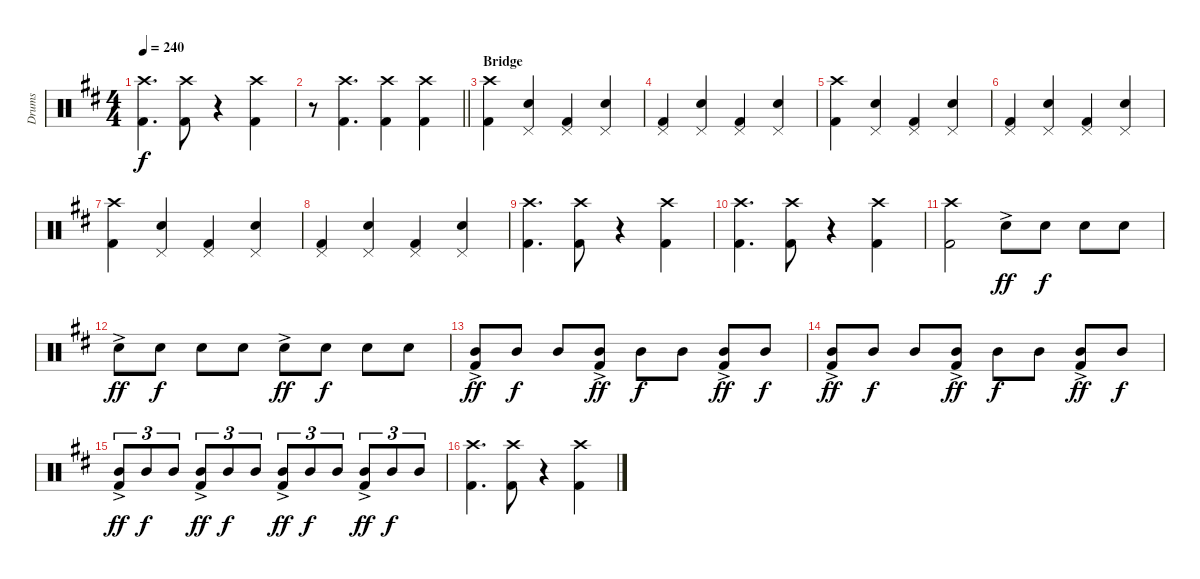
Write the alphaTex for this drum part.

\track ("Drums" "Drums") {instrument percussion}
\staff {score}
\articulation defaults
\ts (4 4)
\tempo 240
\clef neutral
\ks d
("Crash high (hit)" "Kick (hit) 2").4{d dy f} ("Crash high (hit)" "Kick (hit) 2").8 r.4 ("Crash high (hit)" "Kick (hit) 2").4 |
\barLineRight lightlight
r.8 ("Crash high (hit)" "Kick (hit) 2").4{d} ("Crash high (hit)" "Kick (hit) 2").4 ("Crash high (hit)" "Kick (hit) 2").4 |
\section ("" "Bridge")
("Crash high (hit)" "Kick (hit) 2").4 ("Pedal Hi-Hat (hit)" "Electric Snare (hit)").4 ("Pedal Hi-Hat (hit)" "Kick (hit) 2").4 ("Pedal Hi-Hat (hit)" "Electric Snare (hit)").4 |
("Pedal Hi-Hat (hit)" "Kick (hit) 2").4 ("Pedal Hi-Hat (hit)" "Electric Snare (hit)").4 ("Pedal Hi-Hat (hit)" "Kick (hit) 2").4 ("Pedal Hi-Hat (hit)" "Electric Snare (hit)").4 |
("Crash high (hit)" "Kick (hit) 2").4 ("Pedal Hi-Hat (hit)" "Electric Snare (hit)").4 ("Pedal Hi-Hat (hit)" "Kick (hit) 2").4 ("Pedal Hi-Hat (hit)" "Electric Snare (hit)").4 |
("Pedal Hi-Hat (hit)" "Kick (hit) 2").4 ("Pedal Hi-Hat (hit)" "Electric Snare (hit)").4 ("Pedal Hi-Hat (hit)" "Kick (hit) 2").4 ("Pedal Hi-Hat (hit)" "Electric Snare (hit)").4 |
("Crash high (hit)" "Kick (hit) 2").4 ("Pedal Hi-Hat (hit)" "Electric Snare (hit)").4 ("Pedal Hi-Hat (hit)" "Kick (hit) 2").4 ("Pedal Hi-Hat (hit)" "Electric Snare (hit)").4 |
("Pedal Hi-Hat (hit)" "Kick (hit) 2").4 ("Pedal Hi-Hat (hit)" "Electric Snare (hit)").4 ("Pedal Hi-Hat (hit)" "Kick (hit) 2").4 ("Pedal Hi-Hat (hit)" "Electric Snare (hit)").4 |
("Crash high (hit)" "Kick (hit) 2").4{d} ("Crash high (hit)" "Kick (hit) 2").8 r.4 ("Crash high (hit)" "Kick (hit) 2").4 |
("Crash high (hit)" "Kick (hit) 2").4{d} ("Crash high (hit)" "Kick (hit) 2").8 r.4 ("Crash high (hit)" "Kick (hit) 2").4 |
("Crash high (hit)" "Kick (hit) 2").2 "Electric Snare (hit)"{ac}.8{dy ff} "Electric Snare (hit)".8{dy f} "Electric Snare (hit)".8 "Electric Snare (hit)".8 |
"Electric Snare (hit)"{ac}.8{dy ff} "Electric Snare (hit)".8{dy f} "Electric Snare (hit)".8 "Electric Snare (hit)".8 "Electric Snare (hit)"{ac}.8{dy ff} "Electric Snare (hit)".8{dy f} "Electric Snare (hit)".8 "Electric Snare (hit)".8 |
("Mid Tom (hit)"{ac} "Kick (hit) 2").8{dy ff} "Mid Tom (hit)".8{dy f} "Mid Tom (hit)".8 ("Mid Tom (hit)"{ac} "Kick (hit) 2").8{dy ff} "Mid Tom (hit)".8{dy f} "Mid Tom (hit)".8 ("Mid Tom (hit)"{ac} "Kick (hit) 2").8{dy ff} "Mid Tom (hit)".8{dy f} |
("Mid Tom (hit)"{ac} "Kick (hit) 2").8{dy ff} "Mid Tom (hit)".8{dy f} "Mid Tom (hit)".8 ("Mid Tom (hit)"{ac} "Kick (hit) 2").8{dy ff} "Mid Tom (hit)".8{dy f} "Mid Tom (hit)".8 ("Mid Tom (hit)"{ac} "Kick (hit) 2").8{dy ff} "Mid Tom (hit)".8{dy f} |
("Mid Tom (hit)"{ac} "Kick (hit) 2").8{tu (3 2) dy ff} "Mid Tom (hit)".8{tu (3 2) dy f} "Mid Tom (hit)".8{tu (3 2)} ("Mid Tom (hit)"{ac} "Kick (hit) 2").8{tu (3 2) dy ff} "Mid Tom (hit)".8{tu (3 2) dy f} "Mid Tom (hit)".8{tu (3 2)} ("Mid Tom (hit)"{ac} "Kick (hit) 2").8{tu (3 2) dy ff} "Mid Tom (hit)".8{tu (3 2) dy f} "Mid Tom (hit)".8{tu (3 2)} ("Mid Tom (hit)"{ac} "Kick (hit) 2").8{tu (3 2) dy ff} "Mid Tom (hit)".8{tu (3 2) dy f} "Mid Tom (hit)".8{tu (3 2)} |
("Crash high (hit)" "Kick (hit) 2").4{d} ("Crash high (hit)" "Kick (hit) 2").8 r.4 ("Crash high (hit)" "Kick (hit) 2").4
